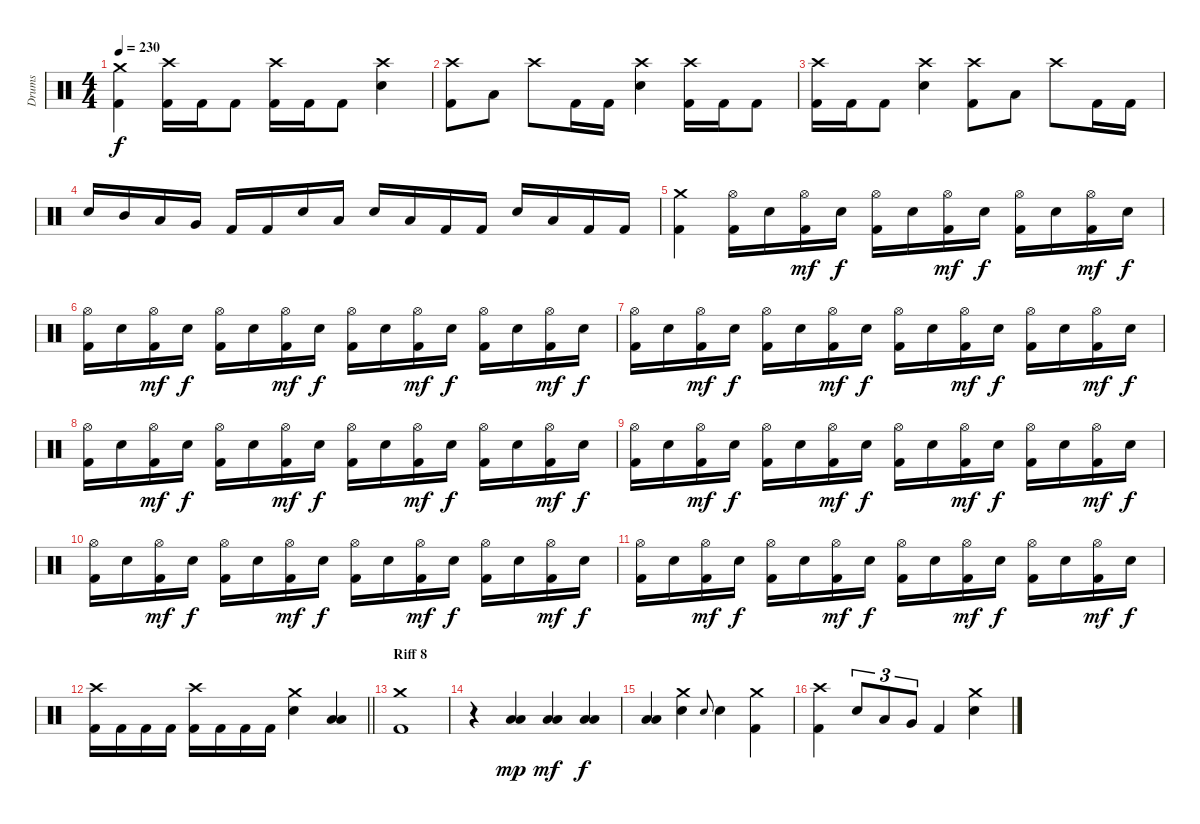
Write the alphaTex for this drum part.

\track ("Drums" "Drums") {instrument percussion}
\staff {score}
\articulation defaults
\ts (4 4)
\tempo 230
\clef neutral
\ks c
("Crash medium (hit)" "Kick (hit) 2").4{dy f} ("Crash high (hit)" "Kick (hit) 2").16 "Kick (hit) 2".16 "Kick (hit) 2".8 ("Crash high (hit)" "Kick (hit) 2").16 "Kick (hit) 2".16 "Kick (hit) 2".8 ("Crash high (hit)" "Electric Snare (hit)").4 |
("Crash high (hit)" "Kick (hit) 2").8 "Low Tom (hit)".8 "Crash high (hit)".8 "Kick (hit) 2".16 "Kick (hit) 2".16 ("Crash high (hit)" "Electric Snare (hit)").4 ("Crash high (hit)" "Kick (hit) 2").16 "Kick (hit) 2".16 "Kick (hit) 2".8 |
("Crash high (hit)" "Kick (hit) 2").16 "Kick (hit) 2".16 "Kick (hit) 2".8 ("Crash high (hit)" "Electric Snare (hit)").4 ("Crash high (hit)" "Kick (hit) 2").8 "Low Tom (hit)".8 "Crash high (hit)".8 "Kick (hit) 2".16 "Kick (hit) 2".16 |
"Electric Snare (hit)".16 "Mid Tom (hit)".16 "Low Tom (hit)".16 "Very Low Tom (hit)".16 "Kick (hit) 2".16 "Kick (hit) 2".16 "Electric Snare (hit)".16 "Low Tom (hit)".16 "Electric Snare (hit)".16 "Low Tom (hit)".16 "Kick (hit) 2".16 "Kick (hit) 2".16 "Electric Snare (hit)".16 "Low Tom (hit)".16 "Kick (hit) 2".16 "Kick (hit) 2".16 |
("Crash medium (hit)" "Kick (hit) 2").4 ("Hi-Hat (open)" "Kick (hit) 2").16 "Electric Snare (hit)".16 ("Hi-Hat (open)" "Kick (hit) 2").16{dy mf} "Electric Snare (hit)".16{dy f} ("Hi-Hat (open)" "Kick (hit) 2").16 "Electric Snare (hit)".16 ("Hi-Hat (open)" "Kick (hit) 2").16{dy mf} "Electric Snare (hit)".16{dy f} ("Hi-Hat (open)" "Kick (hit) 2").16 "Electric Snare (hit)".16 ("Hi-Hat (open)" "Kick (hit) 2").16{dy mf} "Electric Snare (hit)".16{dy f} |
("Hi-Hat (open)" "Kick (hit) 2").16 "Electric Snare (hit)".16 ("Hi-Hat (open)" "Kick (hit) 2").16{dy mf} "Electric Snare (hit)".16{dy f} ("Hi-Hat (open)" "Kick (hit) 2").16 "Electric Snare (hit)".16 ("Hi-Hat (open)" "Kick (hit) 2").16{dy mf} "Electric Snare (hit)".16{dy f} ("Hi-Hat (open)" "Kick (hit) 2").16 "Electric Snare (hit)".16 ("Hi-Hat (open)" "Kick (hit) 2").16{dy mf} "Electric Snare (hit)".16{dy f} ("Hi-Hat (open)" "Kick (hit) 2").16 "Electric Snare (hit)".16 ("Hi-Hat (open)" "Kick (hit) 2").16{dy mf} "Electric Snare (hit)".16{dy f} |
("Hi-Hat (open)" "Kick (hit) 2").16 "Electric Snare (hit)".16 ("Hi-Hat (open)" "Kick (hit) 2").16{dy mf} "Electric Snare (hit)".16{dy f} ("Hi-Hat (open)" "Kick (hit) 2").16 "Electric Snare (hit)".16 ("Hi-Hat (open)" "Kick (hit) 2").16{dy mf} "Electric Snare (hit)".16{dy f} ("Hi-Hat (open)" "Kick (hit) 2").16 "Electric Snare (hit)".16 ("Hi-Hat (open)" "Kick (hit) 2").16{dy mf} "Electric Snare (hit)".16{dy f} ("Hi-Hat (open)" "Kick (hit) 2").16 "Electric Snare (hit)".16 ("Hi-Hat (open)" "Kick (hit) 2").16{dy mf} "Electric Snare (hit)".16{dy f} |
("Hi-Hat (open)" "Kick (hit) 2").16 "Electric Snare (hit)".16 ("Hi-Hat (open)" "Kick (hit) 2").16{dy mf} "Electric Snare (hit)".16{dy f} ("Hi-Hat (open)" "Kick (hit) 2").16 "Electric Snare (hit)".16 ("Hi-Hat (open)" "Kick (hit) 2").16{dy mf} "Electric Snare (hit)".16{dy f} ("Hi-Hat (open)" "Kick (hit) 2").16 "Electric Snare (hit)".16 ("Hi-Hat (open)" "Kick (hit) 2").16{dy mf} "Electric Snare (hit)".16{dy f} ("Hi-Hat (open)" "Kick (hit) 2").16 "Electric Snare (hit)".16 ("Hi-Hat (open)" "Kick (hit) 2").16{dy mf} "Electric Snare (hit)".16{dy f} |
("Hi-Hat (open)" "Kick (hit) 2").16 "Electric Snare (hit)".16 ("Hi-Hat (open)" "Kick (hit) 2").16{dy mf} "Electric Snare (hit)".16{dy f} ("Hi-Hat (open)" "Kick (hit) 2").16 "Electric Snare (hit)".16 ("Hi-Hat (open)" "Kick (hit) 2").16{dy mf} "Electric Snare (hit)".16{dy f} ("Hi-Hat (open)" "Kick (hit) 2").16 "Electric Snare (hit)".16 ("Hi-Hat (open)" "Kick (hit) 2").16{dy mf} "Electric Snare (hit)".16{dy f} ("Hi-Hat (open)" "Kick (hit) 2").16 "Electric Snare (hit)".16 ("Hi-Hat (open)" "Kick (hit) 2").16{dy mf} "Electric Snare (hit)".16{dy f} |
("Hi-Hat (open)" "Kick (hit) 2").16 "Electric Snare (hit)".16 ("Hi-Hat (open)" "Kick (hit) 2").16{dy mf} "Electric Snare (hit)".16{dy f} ("Hi-Hat (open)" "Kick (hit) 2").16 "Electric Snare (hit)".16 ("Hi-Hat (open)" "Kick (hit) 2").16{dy mf} "Electric Snare (hit)".16{dy f} ("Hi-Hat (open)" "Kick (hit) 2").16 "Electric Snare (hit)".16 ("Hi-Hat (open)" "Kick (hit) 2").16{dy mf} "Electric Snare (hit)".16{dy f} ("Hi-Hat (open)" "Kick (hit) 2").16 "Electric Snare (hit)".16 ("Hi-Hat (open)" "Kick (hit) 2").16{dy mf} "Electric Snare (hit)".16{dy f} |
("Hi-Hat (open)" "Kick (hit) 2").16 "Electric Snare (hit)".16 ("Hi-Hat (open)" "Kick (hit) 2").16{dy mf} "Electric Snare (hit)".16{dy f} ("Hi-Hat (open)" "Kick (hit) 2").16 "Electric Snare (hit)".16 ("Hi-Hat (open)" "Kick (hit) 2").16{dy mf} "Electric Snare (hit)".16{dy f} ("Hi-Hat (open)" "Kick (hit) 2").16 "Electric Snare (hit)".16 ("Hi-Hat (open)" "Kick (hit) 2").16{dy mf} "Electric Snare (hit)".16{dy f} ("Hi-Hat (open)" "Kick (hit) 2").16 "Electric Snare (hit)".16 ("Hi-Hat (open)" "Kick (hit) 2").16{dy mf} "Electric Snare (hit)".16{dy f} |
\barLineRight lightlight
("Kick (hit) 2" "Crash high (hit)").16 "Kick (hit) 2".16 "Kick (hit) 2".16 "Kick (hit) 2".16 ("Kick (hit) 2" "Crash high (hit)").16 "Kick (hit) 2".16 "Kick (hit) 2".16 "Kick (hit) 2".16 ("Electric Snare (hit)" "Crash medium (hit)").4 ("Low Tom (hit)" "Low Floor Tom (hit)").4 |
\section ("" "Riff 8")
("Kick (hit) 2" "Crash medium (hit)").1 |
r.4 ("Low Tom (hit)" "Low Floor Tom (hit)").4{dy mp} ("Low Tom (hit)" "Low Floor Tom (hit)").4{dy mf} ("Low Tom (hit)" "Low Floor Tom (hit)").4{dy f} |
("Low Tom (hit)" "Low Floor Tom (hit)").4 ("Electric Snare (hit)" "Crash medium (hit)").4 "Electric Snare (hit)".8{gr onbeat} "Electric Snare (hit)".4 ("Kick (hit) 2" "Crash medium (hit)").4 |
("Kick (hit) 2" "Crash high (hit)").4 "Electric Snare (hit)".8{tu (3 2)} "Low Tom (hit)".8{tu (3 2)} "Very Low Tom (hit)".8{tu (3 2)} "Kick (hit) 2".4 ("Electric Snare (hit)" "Crash medium (hit)").4
